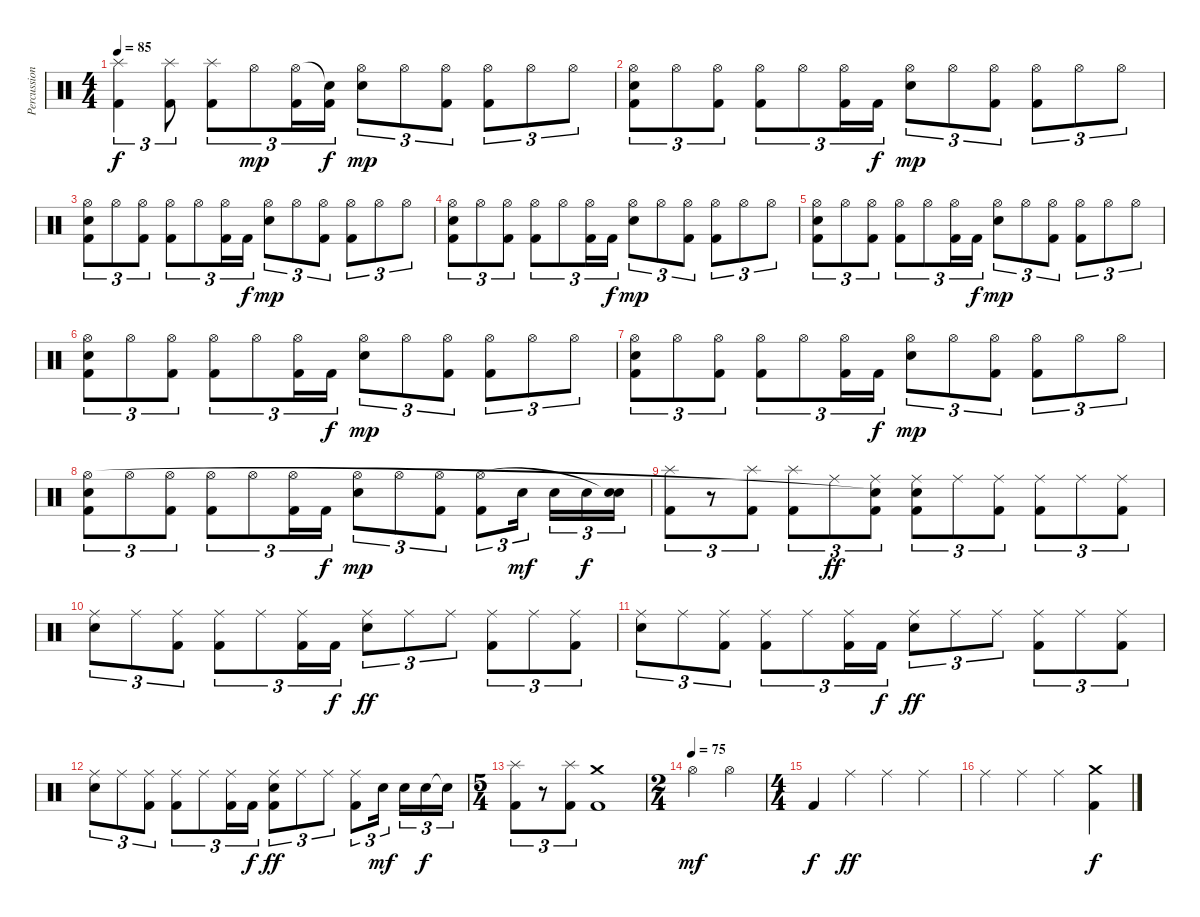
\track ("Percussioni" "Percussion") {instrument percussion}
\staff {score}
\articulation defaults
\ts (4 4)
\tempo 85
\clef neutral
\ks c
("Kick (hit) 2" "Splash (hit)").4{tu (3 2) dy f} ("Kick (hit) 2" "Splash (hit)").8{tu (3 2)} ("Kick (hit) 2" "Splash (hit)").8{tu (3 2)} "Hi-Hat (open)".8{tu (3 2) dy mp} ("Kick (hit) 2" "Hi-Hat (open)").16{tu (3 2)} ("Kick (hit) 2" "Snare (hit)"{t}).16{tu (3 2) dy f} ("Snare (hit) 2" "Hi-Hat (open)").8{tu (3 2) dy mp} "Hi-Hat (open)".8{tu (3 2)} ("Kick (hit) 2" "Hi-Hat (open)").8{tu (3 2)} ("Kick (hit) 2" "Hi-Hat (open)").8{tu (3 2)} "Hi-Hat (open)".8{tu (3 2)} "Hi-Hat (open)".8{tu (3 2)} |
("Kick (hit) 2" "Snare (hit) 2" "Hi-Hat (open)").8{tu (3 2)} "Hi-Hat (open)".8{tu (3 2)} ("Kick (hit) 2" "Hi-Hat (open)").8{tu (3 2)} ("Kick (hit) 2" "Hi-Hat (open)").8{tu (3 2)} "Hi-Hat (open)".8{tu (3 2)} ("Kick (hit) 2" "Hi-Hat (open)").16{tu (3 2)} "Kick (hit) 2".16{tu (3 2) dy f} ("Snare (hit) 2" "Hi-Hat (open)").8{tu (3 2) dy mp} "Hi-Hat (open)".8{tu (3 2)} ("Kick (hit) 2" "Hi-Hat (open)").8{tu (3 2)} ("Kick (hit) 2" "Hi-Hat (open)").8{tu (3 2)} "Hi-Hat (open)".8{tu (3 2)} "Hi-Hat (open)".8{tu (3 2)} |
("Kick (hit) 2" "Snare (hit) 2" "Hi-Hat (open)").8{tu (3 2)} "Hi-Hat (open)".8{tu (3 2)} ("Kick (hit) 2" "Hi-Hat (open)").8{tu (3 2)} ("Kick (hit) 2" "Hi-Hat (open)").8{tu (3 2)} "Hi-Hat (open)".8{tu (3 2)} ("Kick (hit) 2" "Hi-Hat (open)").16{tu (3 2)} "Kick (hit) 2".16{tu (3 2) dy f} ("Snare (hit) 2" "Hi-Hat (open)").8{tu (3 2) dy mp} "Hi-Hat (open)".8{tu (3 2)} ("Kick (hit) 2" "Hi-Hat (open)").8{tu (3 2)} ("Kick (hit) 2" "Hi-Hat (open)").8{tu (3 2)} "Hi-Hat (open)".8{tu (3 2)} "Hi-Hat (open)".8{tu (3 2)} |
("Kick (hit) 2" "Snare (hit) 2" "Hi-Hat (open)").8{tu (3 2)} "Hi-Hat (open)".8{tu (3 2)} ("Kick (hit) 2" "Hi-Hat (open)").8{tu (3 2)} ("Kick (hit) 2" "Hi-Hat (open)").8{tu (3 2)} "Hi-Hat (open)".8{tu (3 2)} ("Kick (hit) 2" "Hi-Hat (open)").16{tu (3 2)} "Kick (hit) 2".16{tu (3 2) dy f} ("Snare (hit) 2" "Hi-Hat (open)").8{tu (3 2) dy mp} "Hi-Hat (open)".8{tu (3 2)} ("Kick (hit) 2" "Hi-Hat (open)").8{tu (3 2)} ("Kick (hit) 2" "Hi-Hat (open)").8{tu (3 2)} "Hi-Hat (open)".8{tu (3 2)} "Hi-Hat (open)".8{tu (3 2)} |
("Kick (hit) 2" "Snare (hit) 2" "Hi-Hat (open)").8{tu (3 2)} "Hi-Hat (open)".8{tu (3 2)} ("Kick (hit) 2" "Hi-Hat (open)").8{tu (3 2)} ("Kick (hit) 2" "Hi-Hat (open)").8{tu (3 2)} "Hi-Hat (open)".8{tu (3 2)} ("Kick (hit) 2" "Hi-Hat (open)").16{tu (3 2)} "Kick (hit) 2".16{tu (3 2) dy f} ("Snare (hit) 2" "Hi-Hat (open)").8{tu (3 2) dy mp} "Hi-Hat (open)".8{tu (3 2)} ("Kick (hit) 2" "Hi-Hat (open)").8{tu (3 2)} ("Kick (hit) 2" "Hi-Hat (open)").8{tu (3 2)} "Hi-Hat (open)".8{tu (3 2)} "Hi-Hat (open)".8{tu (3 2)} |
("Kick (hit) 2" "Snare (hit) 2" "Hi-Hat (open)").8{tu (3 2)} "Hi-Hat (open)".8{tu (3 2)} ("Kick (hit) 2" "Hi-Hat (open)").8{tu (3 2)} ("Kick (hit) 2" "Hi-Hat (open)").8{tu (3 2)} "Hi-Hat (open)".8{tu (3 2)} ("Kick (hit) 2" "Hi-Hat (open)").16{tu (3 2)} "Kick (hit) 2".16{tu (3 2) dy f} ("Snare (hit) 2" "Hi-Hat (open)").8{tu (3 2) dy mp} "Hi-Hat (open)".8{tu (3 2)} ("Kick (hit) 2" "Hi-Hat (open)").8{tu (3 2)} ("Kick (hit) 2" "Hi-Hat (open)").8{tu (3 2)} "Hi-Hat (open)".8{tu (3 2)} "Hi-Hat (open)".8{tu (3 2)} |
("Kick (hit) 2" "Snare (hit) 2" "Hi-Hat (open)").8{tu (3 2)} "Hi-Hat (open)".8{tu (3 2)} ("Kick (hit) 2" "Hi-Hat (open)").8{tu (3 2)} ("Kick (hit) 2" "Hi-Hat (open)").8{tu (3 2)} "Hi-Hat (open)".8{tu (3 2)} ("Kick (hit) 2" "Hi-Hat (open)").16{tu (3 2)} "Kick (hit) 2".16{tu (3 2) dy f} ("Snare (hit) 2" "Hi-Hat (open)").8{tu (3 2) dy mp} "Hi-Hat (open)".8{tu (3 2)} ("Kick (hit) 2" "Hi-Hat (open)").8{tu (3 2)} ("Kick (hit) 2" "Hi-Hat (open)").8{tu (3 2)} "Hi-Hat (open)".8{tu (3 2)} "Hi-Hat (open)".8{tu (3 2)} |
("Kick (hit) 2" "Snare (hit) 2" "Hi-Hat (open)").8{tu (3 2)} "Hi-Hat (open)".8{tu (3 2)} ("Kick (hit) 2" "Hi-Hat (open)").8{tu (3 2)} ("Kick (hit) 2" "Hi-Hat (open)").8{tu (3 2)} "Hi-Hat (open)".8{tu (3 2)} ("Kick (hit) 2" "Hi-Hat (open)").16{tu (3 2)} "Kick (hit) 2".16{tu (3 2) dy f} ("Snare (hit) 2" "Hi-Hat (open)").8{tu (3 2) dy mp} "Hi-Hat (open)".8{tu (3 2)} ("Kick (hit) 2" "Hi-Hat (open)").8{tu (3 2)} ("Kick (hit) 2" "Hi-Hat (open)").8{tu (3 2)} "Snare (hit) 2".16{tu (3 2) dy mf} "Snare (hit) 2".16{tu (3 2)} "Snare (hit) 2".16{tu (3 2) dy f} ("Snare (hit) 2" "Snare (hit)"{t}).16{tu (3 2)} |
("Kick (hit) 2" "Splash (hit)").8{tu (3 2)} r.8{tu (3 2)} ("Kick (hit) 2" "Splash (hit)").8{tu (3 2)} ("Kick (hit) 2" "Splash (hit)").8{tu (3 2)} "Ride (middle)".8{tu (3 2) dy ff} ("Kick (hit) 2" "Ride (middle)" "Snare (hit)"{t}).8{tu (3 2)} ("Kick (hit) 2" "Snare (hit) 2" "Ride (middle)").8{tu (3 2)} "Ride (middle)".8{tu (3 2)} ("Kick (hit) 2" "Ride (middle)").8{tu (3 2)} ("Kick (hit) 2" "Ride (middle)").8{tu (3 2)} "Ride (middle)".8{tu (3 2)} ("Kick (hit) 2" "Ride (middle)").8{tu (3 2)} |
("Snare (hit) 2" "Ride (middle)").8{tu (3 2)} "Ride (middle)".8{tu (3 2)} ("Kick (hit) 2" "Ride (middle)").8{tu (3 2)} ("Kick (hit) 2" "Ride (middle)").8{tu (3 2)} "Ride (middle)".8{tu (3 2)} ("Kick (hit) 2" "Ride (middle)").16{tu (3 2)} "Kick (hit) 2".16{tu (3 2) dy f} ("Snare (hit) 2" "Ride (middle)").8{tu (3 2) dy ff} "Ride (middle)".8{tu (3 2)} "Ride (middle)".8{tu (3 2)} ("Kick (hit) 2" "Ride (middle)").8{tu (3 2)} "Ride (middle)".8{tu (3 2)} ("Kick (hit) 2" "Ride (middle)").8{tu (3 2)} |
("Snare (hit) 2" "Ride (middle)").8{tu (3 2)} "Ride (middle)".8{tu (3 2)} ("Kick (hit) 2" "Ride (middle)").8{tu (3 2)} ("Kick (hit) 2" "Ride (middle)").8{tu (3 2)} "Ride (middle)".8{tu (3 2)} ("Kick (hit) 2" "Ride (middle)").16{tu (3 2)} "Kick (hit) 2".16{tu (3 2) dy f} ("Snare (hit) 2" "Ride (middle)").8{tu (3 2) dy ff} "Ride (middle)".8{tu (3 2)} "Ride (middle)".8{tu (3 2)} ("Kick (hit) 2" "Ride (middle)").8{tu (3 2)} "Ride (middle)".8{tu (3 2)} ("Kick (hit) 2" "Ride (middle)").8{tu (3 2)} |
("Snare (hit) 2" "Ride (middle)").8{tu (3 2)} "Ride (middle)".8{tu (3 2)} ("Kick (hit) 2" "Ride (middle)").8{tu (3 2)} ("Kick (hit) 2" "Ride (middle)").8{tu (3 2)} "Ride (middle)".8{tu (3 2)} ("Kick (hit) 2" "Ride (middle)").16{tu (3 2)} "Kick (hit) 2".16{tu (3 2) dy f} ("Kick (hit) 2" "Snare (hit) 2" "Ride (middle)").8{tu (3 2) dy ff} "Ride (middle)".8{tu (3 2)} "Ride (middle)".8{tu (3 2)} ("Kick (hit) 2" "Ride (middle)").8{tu (3 2)} "Snare (hit) 2".16{tu (3 2) dy mf} "Snare (hit) 2".16{tu (3 2)} "Snare (hit) 2".16{tu (3 2) dy f} "Snare (hit) 2"{t}.16{tu (3 2)} |
\ts (5 4)
("Kick (hit) 2" "Splash (hit)").8{tu (3 2)} r.8{tu (3 2)} ("Kick (hit) 2" "Splash (hit)").8{tu (3 2)} ("Kick (hit) 2" "Crash medium (hit)").1 |
\ts (2 4)
\tempo (75)
"Hi-Hat (open)".4{dy mf} "Hi-Hat (open)".4 |
\ts (4 4)
"Kick (hit) 2".4{dy f} "Ride (middle)".4{dy ff} "Ride (middle)".4 "Ride (middle)".4 |
"Ride (middle)".4 "Ride (middle)".4 "Ride (middle)".4 ("Kick (hit) 2" "Crash medium (hit)").4{dy f}
